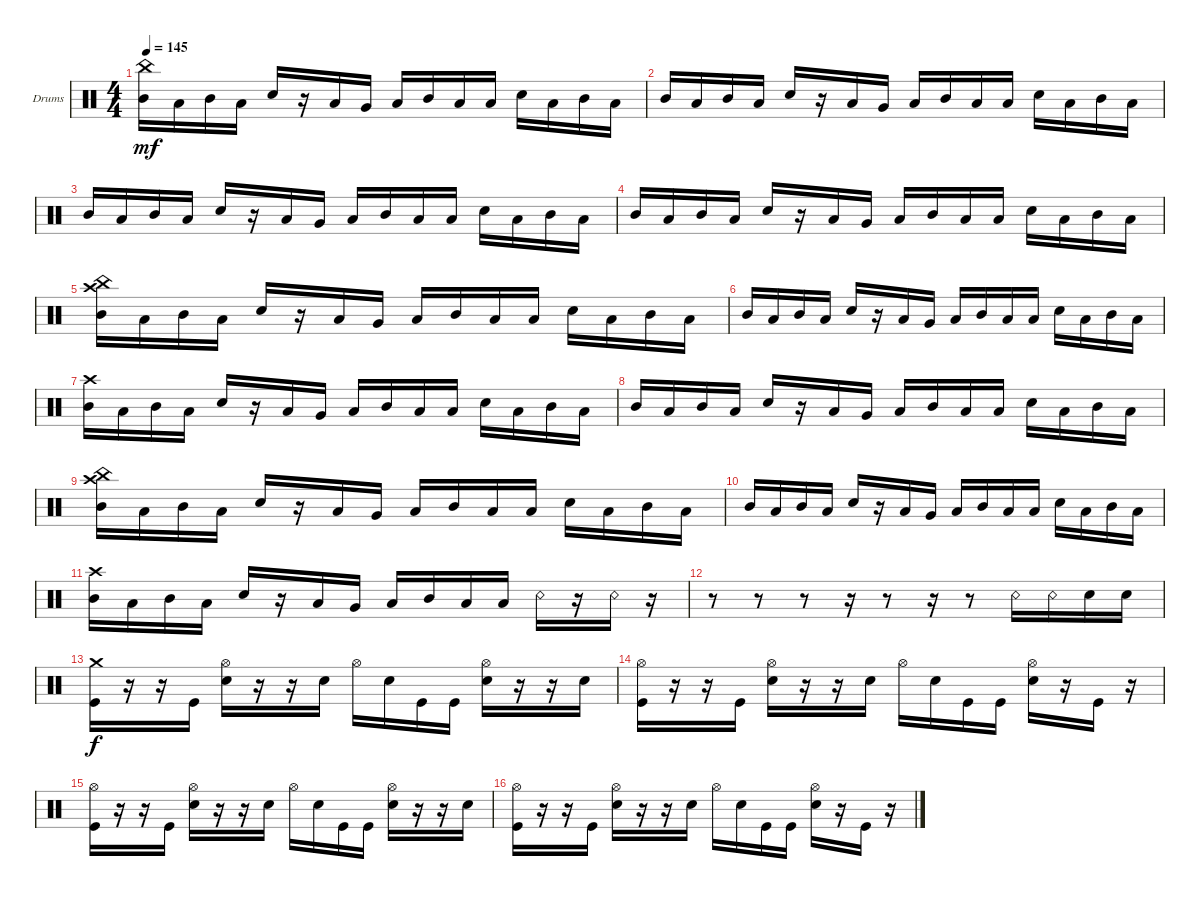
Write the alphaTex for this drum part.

\defaultSystemsLayout 4
\bracketExtendMode groupsimilarinstruments
\firstSystemTrackNameOrientation horizontal
\otherSystemsTrackNameOrientation horizontal
\track ("Drumkit" "Drums") {instrument percussion}
\staff {score}
\articulation defaults
\ts (4 4)
\tempo 145
\clef neutral
\ks c
("Mid Tom (hit)" "China (hit)").16{dy mf} "Low Tom (hit)".16 "Mid Tom (hit)".16 "Low Tom (hit)".16 "Snare (hit) 2".16 r.16 "Low Tom (hit)".16 "Very Low Tom (hit)".16 "Low Tom (hit)".16 "Mid Tom (hit)".16 "Low Tom (hit)".16 "Low Tom (hit)".16 "Snare (hit) 2".16 "Low Tom (hit)".16 "Mid Tom (hit)".16 "Low Tom (hit)".16 |
"Mid Tom (hit)".16 "Low Tom (hit)".16 "Mid Tom (hit)".16 "Low Tom (hit)".16 "Snare (hit) 2".16 r.16 "Low Tom (hit)".16 "Very Low Tom (hit)".16 "Low Tom (hit)".16 "Mid Tom (hit)".16 "Low Tom (hit)".16 "Low Tom (hit)".16 "Snare (hit) 2".16 "Low Tom (hit)".16 "Mid Tom (hit)".16 "Low Tom (hit)".16 |
"Mid Tom (hit)".16 "Low Tom (hit)".16 "Mid Tom (hit)".16 "Low Tom (hit)".16 "Snare (hit) 2".16 r.16 "Low Tom (hit)".16 "Very Low Tom (hit)".16 "Low Tom (hit)".16 "Mid Tom (hit)".16 "Low Tom (hit)".16 "Low Tom (hit)".16 "Snare (hit) 2".16 "Low Tom (hit)".16 "Mid Tom (hit)".16 "Low Tom (hit)".16 |
"Mid Tom (hit)".16 "Low Tom (hit)".16 "Mid Tom (hit)".16 "Low Tom (hit)".16 "Snare (hit) 2".16 r.16 "Low Tom (hit)".16 "Very Low Tom (hit)".16 "Low Tom (hit)".16 "Mid Tom (hit)".16 "Low Tom (hit)".16 "Low Tom (hit)".16 "Snare (hit) 2".16 "Low Tom (hit)".16 "Mid Tom (hit)".16 "Low Tom (hit)".16 |
("Mid Tom (hit)" "China (hit)" "Crash high (hit)").16 "Low Tom (hit)".16 "Mid Tom (hit)".16 "Low Tom (hit)".16 "Snare (hit) 2".16 r.16 "Low Tom (hit)".16 "Very Low Tom (hit)".16 "Low Tom (hit)".16 "Mid Tom (hit)".16 "Low Tom (hit)".16 "Low Tom (hit)".16 "Snare (hit) 2".16 "Low Tom (hit)".16 "Mid Tom (hit)".16 "Low Tom (hit)".16 |
"Mid Tom (hit)".16 "Low Tom (hit)".16 "Mid Tom (hit)".16 "Low Tom (hit)".16 "Snare (hit) 2".16 r.16 "Low Tom (hit)".16 "Very Low Tom (hit)".16 "Low Tom (hit)".16 "Mid Tom (hit)".16 "Low Tom (hit)".16 "Low Tom (hit)".16 "Snare (hit) 2".16 "Low Tom (hit)".16 "Mid Tom (hit)".16 "Low Tom (hit)".16 |
("Mid Tom (hit)" "Crash high (hit)").16 "Low Tom (hit)".16 "Mid Tom (hit)".16 "Low Tom (hit)".16 "Snare (hit) 2".16 r.16 "Low Tom (hit)".16 "Very Low Tom (hit)".16 "Low Tom (hit)".16 "Mid Tom (hit)".16 "Low Tom (hit)".16 "Low Tom (hit)".16 "Snare (hit) 2".16 "Low Tom (hit)".16 "Mid Tom (hit)".16 "Low Tom (hit)".16 |
"Mid Tom (hit)".16 "Low Tom (hit)".16 "Mid Tom (hit)".16 "Low Tom (hit)".16 "Snare (hit) 2".16 r.16 "Low Tom (hit)".16 "Very Low Tom (hit)".16 "Low Tom (hit)".16 "Mid Tom (hit)".16 "Low Tom (hit)".16 "Low Tom (hit)".16 "Snare (hit) 2".16 "Low Tom (hit)".16 "Mid Tom (hit)".16 "Low Tom (hit)".16 |
("Mid Tom (hit)" "China (hit)" "Crash high (hit)").16 "Low Tom (hit)".16 "Mid Tom (hit)".16 "Low Tom (hit)".16 "Snare (hit) 2".16 r.16 "Low Tom (hit)".16 "Very Low Tom (hit)".16 "Low Tom (hit)".16 "Mid Tom (hit)".16 "Low Tom (hit)".16 "Low Tom (hit)".16 "Snare (hit) 2".16 "Low Tom (hit)".16 "Mid Tom (hit)".16 "Low Tom (hit)".16 |
"Mid Tom (hit)".16 "Low Tom (hit)".16 "Mid Tom (hit)".16 "Low Tom (hit)".16 "Snare (hit) 2".16 r.16 "Low Tom (hit)".16 "Very Low Tom (hit)".16 "Low Tom (hit)".16 "Mid Tom (hit)".16 "Low Tom (hit)".16 "Low Tom (hit)".16 "Snare (hit) 2".16 "Low Tom (hit)".16 "Mid Tom (hit)".16 "Low Tom (hit)".16 |
("Mid Tom (hit)" "Crash high (hit)").16 "Low Tom (hit)".16 "Mid Tom (hit)".16 "Low Tom (hit)".16 "Snare (hit) 2".16 r.16 "Low Tom (hit)".16 "Very Low Tom (hit)".16 "Low Tom (hit)".16 "Mid Tom (hit)".16 "Low Tom (hit)".16 "Low Tom (hit)".16 "Snare (rim shot)".16 r.16 "Snare (rim shot)".16 r.16 |
r.8 r.8 r.8 r.16 r.8 r.16 r.8 "Snare (rim shot)".16 "Snare (rim shot)".16 "Snare (hit) 2".16 "Snare (hit) 2".16 |
("Crash medium (hit)" "Kick (hit)").16{dy f} r.16 r.16 "Kick (hit)".16 ("Hi-Hat (open)" "Snare (hit) 2").16 r.16 r.16 "Snare (hit) 2".16 "Hi-Hat (open)".16 "Snare (hit) 2".16 "Kick (hit)".16 "Kick (hit)".16 ("Hi-Hat (open)" "Snare (hit) 2").16 r.16 r.16 "Snare (hit) 2".16 |
("Hi-Hat (open)" "Kick (hit)").16 r.16 r.16 "Kick (hit)".16 ("Hi-Hat (open)" "Snare (hit) 2").16 r.16 r.16 "Snare (hit) 2".16 "Hi-Hat (open)".16 "Snare (hit) 2".16 "Kick (hit)".16 "Kick (hit)".16 ("Hi-Hat (open)" "Snare (hit) 2").16 r.16 "Kick (hit)".16 r.16 |
("Hi-Hat (open)" "Kick (hit)").16 r.16 r.16 "Kick (hit)".16 ("Hi-Hat (open)" "Snare (hit) 2").16 r.16 r.16 "Snare (hit) 2".16 "Hi-Hat (open)".16 "Snare (hit) 2".16 "Kick (hit)".16 "Kick (hit)".16 ("Hi-Hat (open)" "Snare (hit) 2").16 r.16 r.16 "Snare (hit) 2".16 |
("Hi-Hat (open)" "Kick (hit)").16 r.16 r.16 "Kick (hit)".16 ("Hi-Hat (open)" "Snare (hit) 2").16 r.16 r.16 "Snare (hit) 2".16 "Hi-Hat (open)".16 "Snare (hit) 2".16 "Kick (hit)".16 "Kick (hit)".16 ("Hi-Hat (open)" "Snare (hit) 2").16 r.16 "Kick (hit)".16 r.16
